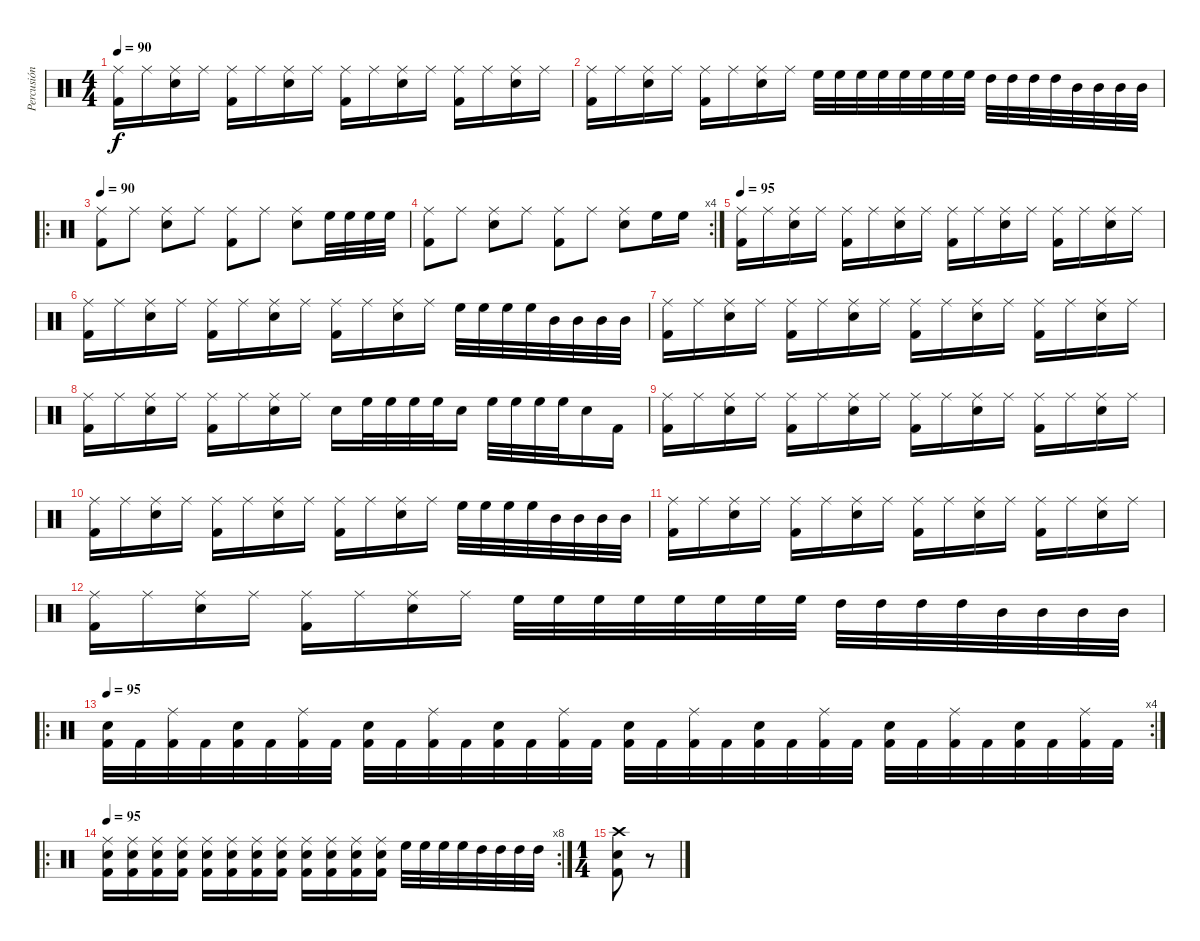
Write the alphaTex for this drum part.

\track ("Percusión" "Percusión") {instrument percussion}
\staff {score}
\articulation defaults
\ts (4 4)
\tempo 90
\clef neutral
\ks c
("Ride (middle)" "Kick (hit) 2").16{dy f} "Ride (middle)".16 ("Ride (middle)" "Electric Snare (hit)").16 "Ride (middle)".16 ("Ride (middle)" "Kick (hit) 2").16 "Ride (middle)".16 ("Ride (middle)" "Electric Snare (hit)").16 "Ride (middle)".16 ("Ride (middle)" "Kick (hit) 2").16 "Ride (middle)".16 ("Ride (middle)" "Electric Snare (hit)").16 "Ride (middle)".16 ("Ride (middle)" "Kick (hit) 2").16 "Ride (middle)".16 ("Ride (middle)" "Electric Snare (hit)").16 "Ride (middle)".16 |
("Ride (middle)" "Kick (hit) 2").16 "Ride (middle)".16 ("Ride (middle)" "Electric Snare (hit)").16 "Ride (middle)".16 ("Ride (middle)" "Kick (hit) 2").16 "Ride (middle)".16 ("Ride (middle)" "Electric Snare (hit)").16 "Ride (middle)".16 "High Floor Tom (hit)".32 "High Floor Tom (hit)".32 "High Floor Tom (hit)".32 "High Floor Tom (hit)".32 "High Floor Tom (hit)".32 "High Floor Tom (hit)".32 "High Floor Tom (hit)".32 "High Floor Tom (hit)".32 "High Tom (hit)".32 "High Tom (hit)".32 "High Tom (hit)".32 "High Tom (hit)".32 "Mid Tom (hit)".32 "Mid Tom (hit)".32 "Mid Tom (hit)".32 "Mid Tom (hit)".32 |
\ro
\tempo 90
("Ride (middle)" "Kick (hit) 2").8 "Ride (middle)".8 ("Ride (middle)" "Electric Snare (hit)").8 "Ride (middle)".8 ("Ride (middle)" "Kick (hit) 2").8 "Ride (middle)".8 ("Ride (middle)" "Electric Snare (hit)").8 "High Floor Tom (hit)".32 "High Floor Tom (hit)".32 "High Floor Tom (hit)".32 "High Floor Tom (hit)".32 |
\rc 4
("Ride (middle)" "Kick (hit) 2").8 "Ride (middle)".8 ("Ride (middle)" "Electric Snare (hit)").8 "Ride (middle)".8 ("Ride (middle)" "Kick (hit) 2").8 "Ride (middle)".8 ("Ride (middle)" "Electric Snare (hit)").8 "High Floor Tom (hit)".16 "High Floor Tom (hit)".16 |
\tempo 90
\tempo 95
("Ride (middle)" "Kick (hit) 2").16 "Ride (middle)".16 ("Ride (middle)" "Electric Snare (hit)").16 "Ride (middle)".16 ("Ride (middle)" "Kick (hit) 2").16 "Ride (middle)".16 ("Ride (middle)" "Electric Snare (hit)").16 "Ride (middle)".16 ("Ride (middle)" "Kick (hit) 2").16 "Ride (middle)".16 ("Ride (middle)" "Electric Snare (hit)").16 "Ride (middle)".16 ("Ride (middle)" "Kick (hit) 2").16 "Ride (middle)".16 ("Ride (middle)" "Electric Snare (hit)").16 "Ride (middle)".16 |
("Ride (middle)" "Kick (hit) 2").16 "Ride (middle)".16 ("Ride (middle)" "Electric Snare (hit)").16 "Ride (middle)".16 ("Ride (middle)" "Kick (hit) 2").16 "Ride (middle)".16 ("Ride (middle)" "Electric Snare (hit)").16 "Ride (middle)".16 ("Ride (middle)" "Kick (hit) 2").16 "Ride (middle)".16 ("Ride (middle)" "Electric Snare (hit)").16 "Ride (middle)".16 "High Floor Tom (hit)".32 "High Floor Tom (hit)".32 "High Floor Tom (hit)".32 "High Floor Tom (hit)".32 "Mid Tom (hit)".32 "Mid Tom (hit)".32 "Mid Tom (hit)".32 "Mid Tom (hit)".32 |
("Ride (middle)" "Kick (hit) 2").16 "Ride (middle)".16 ("Ride (middle)" "Electric Snare (hit)").16 "Ride (middle)".16 ("Ride (middle)" "Kick (hit) 2").16 "Ride (middle)".16 ("Ride (middle)" "Electric Snare (hit)").16 "Ride (middle)".16 ("Ride (middle)" "Kick (hit) 2").16 "Ride (middle)".16 ("Ride (middle)" "Electric Snare (hit)").16 "Ride (middle)".16 ("Ride (middle)" "Kick (hit) 2").16 "Ride (middle)".16 ("Ride (middle)" "Electric Snare (hit)").16 "Ride (middle)".16 |
("Ride (middle)" "Kick (hit) 2").16 "Ride (middle)".16 ("Ride (middle)" "Electric Snare (hit)").16 "Ride (middle)".16 ("Ride (middle)" "Kick (hit) 2").16 "Ride (middle)".16 ("Ride (middle)" "Electric Snare (hit)").16 "Ride (middle)".16 "Electric Snare (hit)".16 "High Floor Tom (hit)".32 "High Floor Tom (hit)".32 "High Floor Tom (hit)".32 "High Floor Tom (hit)".32 "Electric Snare (hit)".16 "High Floor Tom (hit)".32 "High Floor Tom (hit)".32 "High Floor Tom (hit)".32 "High Floor Tom (hit)".32 "Electric Snare (hit)".16 "Kick (hit) 2".16 |
("Ride (middle)" "Kick (hit) 2").16 "Ride (middle)".16 ("Ride (middle)" "Electric Snare (hit)").16 "Ride (middle)".16 ("Ride (middle)" "Kick (hit) 2").16 "Ride (middle)".16 ("Ride (middle)" "Electric Snare (hit)").16 "Ride (middle)".16 ("Ride (middle)" "Kick (hit) 2").16 "Ride (middle)".16 ("Ride (middle)" "Electric Snare (hit)").16 "Ride (middle)".16 ("Ride (middle)" "Kick (hit) 2").16 "Ride (middle)".16 ("Ride (middle)" "Electric Snare (hit)").16 "Ride (middle)".16 |
("Ride (middle)" "Kick (hit) 2").16 "Ride (middle)".16 ("Ride (middle)" "Electric Snare (hit)").16 "Ride (middle)".16 ("Ride (middle)" "Kick (hit) 2").16 "Ride (middle)".16 ("Ride (middle)" "Electric Snare (hit)").16 "Ride (middle)".16 ("Ride (middle)" "Kick (hit) 2").16 "Ride (middle)".16 ("Ride (middle)" "Electric Snare (hit)").16 "Ride (middle)".16 "High Floor Tom (hit)".32 "High Floor Tom (hit)".32 "High Floor Tom (hit)".32 "High Floor Tom (hit)".32 "Mid Tom (hit)".32 "Mid Tom (hit)".32 "Mid Tom (hit)".32 "Mid Tom (hit)".32 |
("Ride (middle)" "Kick (hit) 2").16 "Ride (middle)".16 ("Ride (middle)" "Electric Snare (hit)").16 "Ride (middle)".16 ("Ride (middle)" "Kick (hit) 2").16 "Ride (middle)".16 ("Ride (middle)" "Electric Snare (hit)").16 "Ride (middle)".16 ("Ride (middle)" "Kick (hit) 2").16 "Ride (middle)".16 ("Ride (middle)" "Electric Snare (hit)").16 "Ride (middle)".16 ("Ride (middle)" "Kick (hit) 2").16 "Ride (middle)".16 ("Ride (middle)" "Electric Snare (hit)").16 "Ride (middle)".16 |
("Ride (middle)" "Kick (hit) 2").16 "Ride (middle)".16 ("Ride (middle)" "Electric Snare (hit)").16 "Ride (middle)".16 ("Ride (middle)" "Kick (hit) 2").16 "Ride (middle)".16 ("Ride (middle)" "Electric Snare (hit)").16 "Ride (middle)".16 "High Floor Tom (hit)".32 "High Floor Tom (hit)".32 "High Floor Tom (hit)".32 "High Floor Tom (hit)".32 "High Floor Tom (hit)".32 "High Floor Tom (hit)".32 "High Floor Tom (hit)".32 "High Floor Tom (hit)".32 "High Tom (hit)".32 "High Tom (hit)".32 "High Tom (hit)".32 "High Tom (hit)".32 "Mid Tom (hit)".32 "Mid Tom (hit)".32 "Mid Tom (hit)".32 "Mid Tom (hit)".32 |
\ro
\rc 4
\tempo 95
("Electric Snare (hit)" "Kick (hit) 2").32 "Kick (hit) 2".32 ("Ride (middle)" "Kick (hit) 2").32 "Kick (hit) 2".32 ("Electric Snare (hit)" "Kick (hit) 2").32 "Kick (hit) 2".32 ("Ride (middle)" "Kick (hit) 2").32 "Kick (hit) 2".32 ("Electric Snare (hit)" "Kick (hit) 2").32 "Kick (hit) 2".32 ("Ride (middle)" "Kick (hit) 2").32 "Kick (hit) 2".32 ("Electric Snare (hit)" "Kick (hit) 2").32 "Kick (hit) 2".32 ("Ride (middle)" "Kick (hit) 2").32 "Kick (hit) 2".32 ("Electric Snare (hit)" "Kick (hit) 2").32 "Kick (hit) 2".32 ("Ride (middle)" "Kick (hit) 2").32 "Kick (hit) 2".32 ("Electric Snare (hit)" "Kick (hit) 2").32 "Kick (hit) 2".32 ("Ride (middle)" "Kick (hit) 2").32 "Kick (hit) 2".32 ("Electric Snare (hit)" "Kick (hit) 2").32 "Kick (hit) 2".32 ("Ride (middle)" "Kick (hit) 2").32 "Kick (hit) 2".32 ("Electric Snare (hit)" "Kick (hit) 2").32 "Kick (hit) 2".32 ("Ride (middle)" "Kick (hit) 2").32 "Kick (hit) 2".32 |
\ro
\rc 8
\tempo 95
("Ride (middle)" "Electric Snare (hit)" "Kick (hit) 2").16 ("Ride (middle)" "Electric Snare (hit)" "Kick (hit) 2").16 ("Ride (middle)" "Electric Snare (hit)" "Kick (hit) 2").16 ("Ride (middle)" "Electric Snare (hit)" "Kick (hit) 2").16 ("Ride (middle)" "Electric Snare (hit)" "Kick (hit) 2").16 ("Ride (middle)" "Electric Snare (hit)" "Kick (hit) 2").16 ("Ride (middle)" "Electric Snare (hit)" "Kick (hit) 2").16 ("Ride (middle)" "Electric Snare (hit)" "Kick (hit) 2").16 ("Ride (middle)" "Electric Snare (hit)" "Kick (hit) 2").16 ("Ride (middle)" "Electric Snare (hit)" "Kick (hit) 2").16 ("Ride (middle)" "Electric Snare (hit)" "Kick (hit) 2").16 ("Ride (middle)" "Electric Snare (hit)" "Kick (hit) 2").16 "High Floor Tom (hit)".32 "High Floor Tom (hit)".32 "High Floor Tom (hit)".32 "High Floor Tom (hit)".32 "High Tom (hit)".32 "High Tom (hit)".32 "High Tom (hit)".32 "High Tom (hit)".32 |
\ts (1 4)
("Crash high (hit)" "Electric Snare (hit)" "Kick (hit) 2").8 r.8
